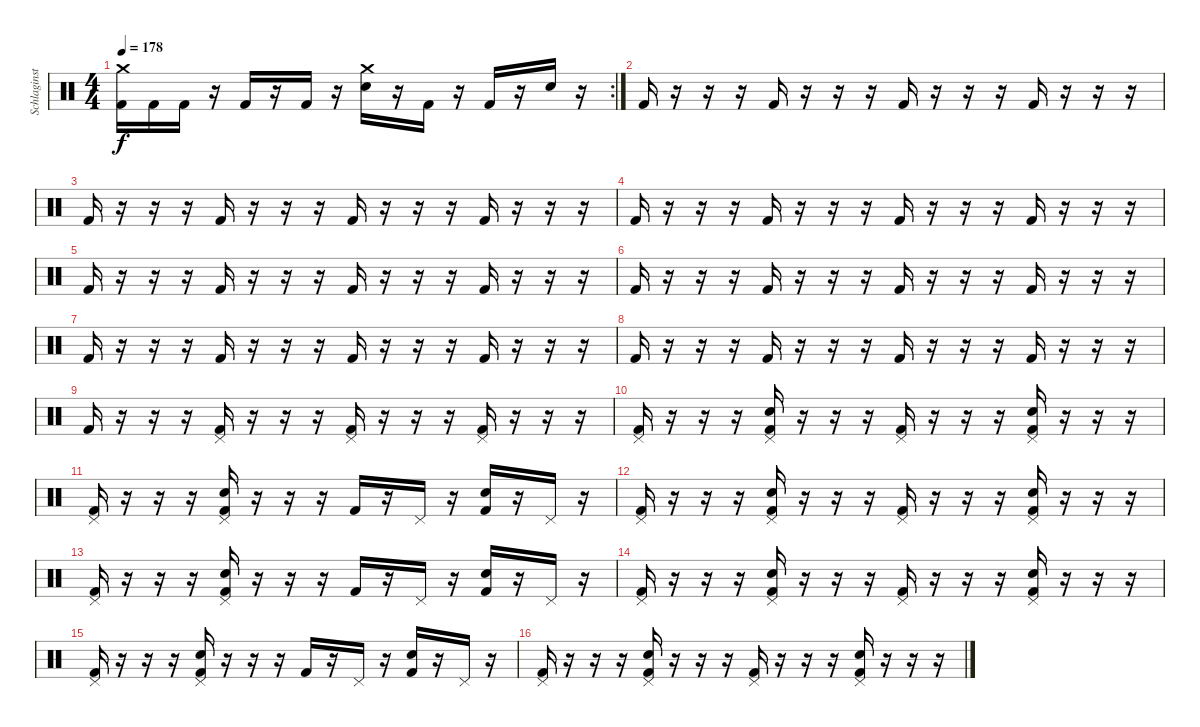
\track ("Schlaginstrumente - Auswahl" "Schlaginst") {instrument percussion}
\staff {score}
\articulation defaults
\rc 2
\ts (4 4)
\tempo 178
\clef neutral
\ks c
("Crash medium (hit)" "Kick (hit) 2").16{dy f} "Kick (hit) 2".16 "Kick (hit) 2".16 r.16 "Kick (hit) 2".16 r.16 "Kick (hit) 2".16 r.16 ("Crash medium (hit)" "Snare (hit) 2").16 r.16 "Kick (hit) 2".16 r.16 "Kick (hit) 2".16 r.16 "Snare (hit) 2".16 r.16 |
"Kick (hit) 2".16 r.16 r.16 r.16 "Kick (hit) 2".16 r.16 r.16 r.16 "Kick (hit) 2".16 r.16 r.16 r.16 "Kick (hit) 2".16 r.16 r.16 r.16 |
"Kick (hit) 2".16 r.16 r.16 r.16 "Kick (hit) 2".16 r.16 r.16 r.16 "Kick (hit) 2".16 r.16 r.16 r.16 "Kick (hit) 2".16 r.16 r.16 r.16 |
"Kick (hit) 2".16 r.16 r.16 r.16 "Kick (hit) 2".16 r.16 r.16 r.16 "Kick (hit) 2".16 r.16 r.16 r.16 "Kick (hit) 2".16 r.16 r.16 r.16 |
"Kick (hit) 2".16 r.16 r.16 r.16 "Kick (hit) 2".16 r.16 r.16 r.16 "Kick (hit) 2".16 r.16 r.16 r.16 "Kick (hit) 2".16 r.16 r.16 r.16 |
"Kick (hit) 2".16 r.16 r.16 r.16 "Kick (hit) 2".16 r.16 r.16 r.16 "Kick (hit) 2".16 r.16 r.16 r.16 "Kick (hit) 2".16 r.16 r.16 r.16 |
"Kick (hit) 2".16 r.16 r.16 r.16 "Kick (hit) 2".16 r.16 r.16 r.16 "Kick (hit) 2".16 r.16 r.16 r.16 "Kick (hit) 2".16 r.16 r.16 r.16 |
"Kick (hit) 2".16 r.16 r.16 r.16 "Kick (hit) 2".16 r.16 r.16 r.16 "Kick (hit) 2".16 r.16 r.16 r.16 "Kick (hit) 2".16 r.16 r.16 r.16 |
"Kick (hit) 2".16 r.16 r.16 r.16 ("Pedal Hi-Hat (hit)" "Kick (hit) 2").16 r.16 r.16 r.16 ("Pedal Hi-Hat (hit)" "Kick (hit) 2").16 r.16 r.16 r.16 ("Pedal Hi-Hat (hit)" "Kick (hit) 2").16 r.16 r.16 r.16 |
("Pedal Hi-Hat (hit)" "Kick (hit) 2").16 r.16 r.16 r.16 ("Pedal Hi-Hat (hit)" "Snare (hit) 2" "Kick (hit) 2").16 r.16 r.16 r.16 ("Pedal Hi-Hat (hit)" "Kick (hit) 2").16 r.16 r.16 r.16 ("Pedal Hi-Hat (hit)" "Snare (hit) 2" "Kick (hit) 2").16 r.16 r.16 r.16 |
("Pedal Hi-Hat (hit)" "Kick (hit) 2").16 r.16 r.16 r.16 ("Pedal Hi-Hat (hit)" "Snare (hit) 2" "Kick (hit) 2").16 r.16 r.16 r.16 "Kick (hit) 2".16 r.16 "Pedal Hi-Hat (hit)".16 r.16 ("Snare (hit) 2" "Kick (hit) 2").16 r.16 "Pedal Hi-Hat (hit)".16 r.16 |
("Pedal Hi-Hat (hit)" "Kick (hit) 2").16 r.16 r.16 r.16 ("Pedal Hi-Hat (hit)" "Snare (hit) 2" "Kick (hit) 2").16 r.16 r.16 r.16 ("Pedal Hi-Hat (hit)" "Kick (hit) 2").16 r.16 r.16 r.16 ("Pedal Hi-Hat (hit)" "Snare (hit) 2" "Kick (hit) 2").16 r.16 r.16 r.16 |
("Pedal Hi-Hat (hit)" "Kick (hit) 2").16 r.16 r.16 r.16 ("Pedal Hi-Hat (hit)" "Snare (hit) 2" "Kick (hit) 2").16 r.16 r.16 r.16 "Kick (hit) 2".16 r.16 "Pedal Hi-Hat (hit)".16 r.16 ("Snare (hit) 2" "Kick (hit) 2").16 r.16 "Pedal Hi-Hat (hit)".16 r.16 |
("Pedal Hi-Hat (hit)" "Kick (hit) 2").16 r.16 r.16 r.16 ("Pedal Hi-Hat (hit)" "Snare (hit) 2" "Kick (hit) 2").16 r.16 r.16 r.16 ("Pedal Hi-Hat (hit)" "Kick (hit) 2").16 r.16 r.16 r.16 ("Pedal Hi-Hat (hit)" "Snare (hit) 2" "Kick (hit) 2").16 r.16 r.16 r.16 |
("Pedal Hi-Hat (hit)" "Kick (hit) 2").16 r.16 r.16 r.16 ("Pedal Hi-Hat (hit)" "Snare (hit) 2" "Kick (hit) 2").16 r.16 r.16 r.16 "Kick (hit) 2".16 r.16 "Pedal Hi-Hat (hit)".16 r.16 ("Snare (hit) 2" "Kick (hit) 2").16 r.16 "Pedal Hi-Hat (hit)".16 r.16 |
("Pedal Hi-Hat (hit)" "Kick (hit) 2").16 r.16 r.16 r.16 ("Pedal Hi-Hat (hit)" "Snare (hit) 2" "Kick (hit) 2").16 r.16 r.16 r.16 ("Pedal Hi-Hat (hit)" "Kick (hit) 2").16 r.16 r.16 r.16 ("Pedal Hi-Hat (hit)" "Snare (hit) 2" "Kick (hit) 2").16 r.16 r.16 r.16
